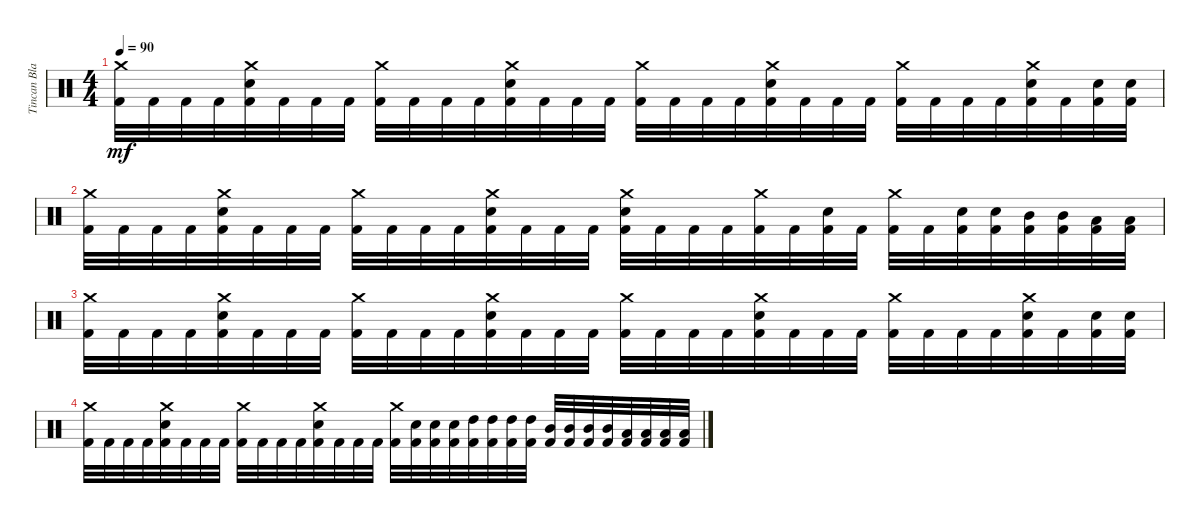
\track ("Tincan Blaster" "Tincan Bla") {instrument percussion}
\staff {score}
\articulation defaults
\ts (4 4)
\tempo 90
\clef neutral
\ks c
("Crash medium (hit)" "Kick (hit) 2").32{dy mf} "Kick (hit) 2".32 "Kick (hit) 2".32 "Kick (hit) 2".32 ("Crash medium (hit)" "Electric Snare (hit)" "Kick (hit) 2").32 "Kick (hit) 2".32 "Kick (hit) 2".32 "Kick (hit) 2".32 ("Crash medium (hit)" "Kick (hit) 2").32 "Kick (hit) 2".32 "Kick (hit) 2".32 "Kick (hit) 2".32 ("Crash medium (hit)" "Electric Snare (hit)" "Kick (hit) 2").32 "Kick (hit) 2".32 "Kick (hit) 2".32 "Kick (hit) 2".32 ("Crash medium (hit)" "Kick (hit) 2").32 "Kick (hit) 2".32 "Kick (hit) 2".32 "Kick (hit) 2".32 ("Crash medium (hit)" "Electric Snare (hit)" "Kick (hit) 2").32 "Kick (hit) 2".32 "Kick (hit) 2".32 "Kick (hit) 2".32 ("Crash medium (hit)" "Kick (hit) 2").32 "Kick (hit) 2".32 "Kick (hit) 2".32 "Kick (hit) 2".32 ("Crash medium (hit)" "Electric Snare (hit)" "Kick (hit) 2").32 "Kick (hit) 2".32 ("Electric Snare (hit)" "Kick (hit) 2").32 ("Electric Snare (hit)" "Kick (hit) 2").32 |
("Crash medium (hit)" "Kick (hit) 2").32 "Kick (hit) 2".32 "Kick (hit) 2".32 "Kick (hit) 2".32 ("Crash medium (hit)" "Electric Snare (hit)" "Kick (hit) 2").32 "Kick (hit) 2".32 "Kick (hit) 2".32 "Kick (hit) 2".32 ("Crash medium (hit)" "Kick (hit) 2").32 "Kick (hit) 2".32 "Kick (hit) 2".32 "Kick (hit) 2".32 ("Crash medium (hit)" "Electric Snare (hit)" "Kick (hit) 2").32 "Kick (hit) 2".32 "Kick (hit) 2".32 "Kick (hit) 2".32 ("Crash medium (hit)" "Electric Snare (hit)" "Kick (hit) 2").32 "Kick (hit) 2".32 "Kick (hit) 2".32 "Kick (hit) 2".32 ("Crash medium (hit)" "Kick (hit) 2").32 "Kick (hit) 2".32 ("Electric Snare (hit)" "Kick (hit) 2").32 "Kick (hit) 2".32 ("Crash medium (hit)" "Kick (hit) 2").32 "Kick (hit) 2".32 ("Electric Snare (hit)" "Kick (hit) 2").32 ("Electric Snare (hit)" "Kick (hit) 2").32 ("Mid Tom (hit)" "Kick (hit) 2").32 ("Mid Tom (hit)" "Kick (hit) 2").32 ("Low Tom (hit)" "Kick (hit) 2").32 ("Low Tom (hit)" "Kick (hit) 2").32 |
("Crash medium (hit)" "Kick (hit) 2").32 "Kick (hit) 2".32 "Kick (hit) 2".32 "Kick (hit) 2".32 ("Crash medium (hit)" "Electric Snare (hit)" "Kick (hit) 2").32 "Kick (hit) 2".32 "Kick (hit) 2".32 "Kick (hit) 2".32 ("Crash medium (hit)" "Kick (hit) 2").32 "Kick (hit) 2".32 "Kick (hit) 2".32 "Kick (hit) 2".32 ("Crash medium (hit)" "Electric Snare (hit)" "Kick (hit) 2").32 "Kick (hit) 2".32 "Kick (hit) 2".32 "Kick (hit) 2".32 ("Crash medium (hit)" "Kick (hit) 2").32 "Kick (hit) 2".32 "Kick (hit) 2".32 "Kick (hit) 2".32 ("Crash medium (hit)" "Electric Snare (hit)" "Kick (hit) 2").32 "Kick (hit) 2".32 "Kick (hit) 2".32 "Kick (hit) 2".32 ("Crash medium (hit)" "Kick (hit) 2").32 "Kick (hit) 2".32 "Kick (hit) 2".32 "Kick (hit) 2".32 ("Crash medium (hit)" "Electric Snare (hit)" "Kick (hit) 2").32 "Kick (hit) 2".32 ("Electric Snare (hit)" "Kick (hit) 2").32 ("Electric Snare (hit)" "Kick (hit) 2").32 |
("Crash medium (hit)" "Kick (hit) 2").32 "Kick (hit) 2".32 "Kick (hit) 2".32 "Kick (hit) 2".32 ("Crash medium (hit)" "Electric Snare (hit)" "Kick (hit) 2").32 "Kick (hit) 2".32 "Kick (hit) 2".32 "Kick (hit) 2".32 ("Crash medium (hit)" "Kick (hit) 2").32 "Kick (hit) 2".32 "Kick (hit) 2".32 "Kick (hit) 2".32 ("Crash medium (hit)" "Electric Snare (hit)" "Kick (hit) 2").32 "Kick (hit) 2".32 "Kick (hit) 2".32 "Kick (hit) 2".32 ("Crash medium (hit)" "Kick (hit) 2").32 ("Electric Snare (hit)" "Kick (hit) 2").32 ("Electric Snare (hit)" "Kick (hit) 2").32 ("Electric Snare (hit)" "Kick (hit) 2").32 ("High Tom (hit)" "Kick (hit) 2").32 ("High Tom (hit)" "Kick (hit) 2").32 ("High Tom (hit)" "Kick (hit) 2").32 ("High Tom (hit)" "Kick (hit) 2").32 ("Mid Tom (hit)" "Kick (hit) 2").32 ("Mid Tom (hit)" "Kick (hit) 2").32 ("Mid Tom (hit)" "Kick (hit) 2").32 ("Mid Tom (hit)" "Kick (hit) 2").32 ("Low Tom (hit)" "Kick (hit) 2").32 ("Low Tom (hit)" "Kick (hit) 2").32 ("Low Tom (hit)" "Kick (hit) 2").32 ("Low Tom (hit)" "Kick (hit) 2").32
